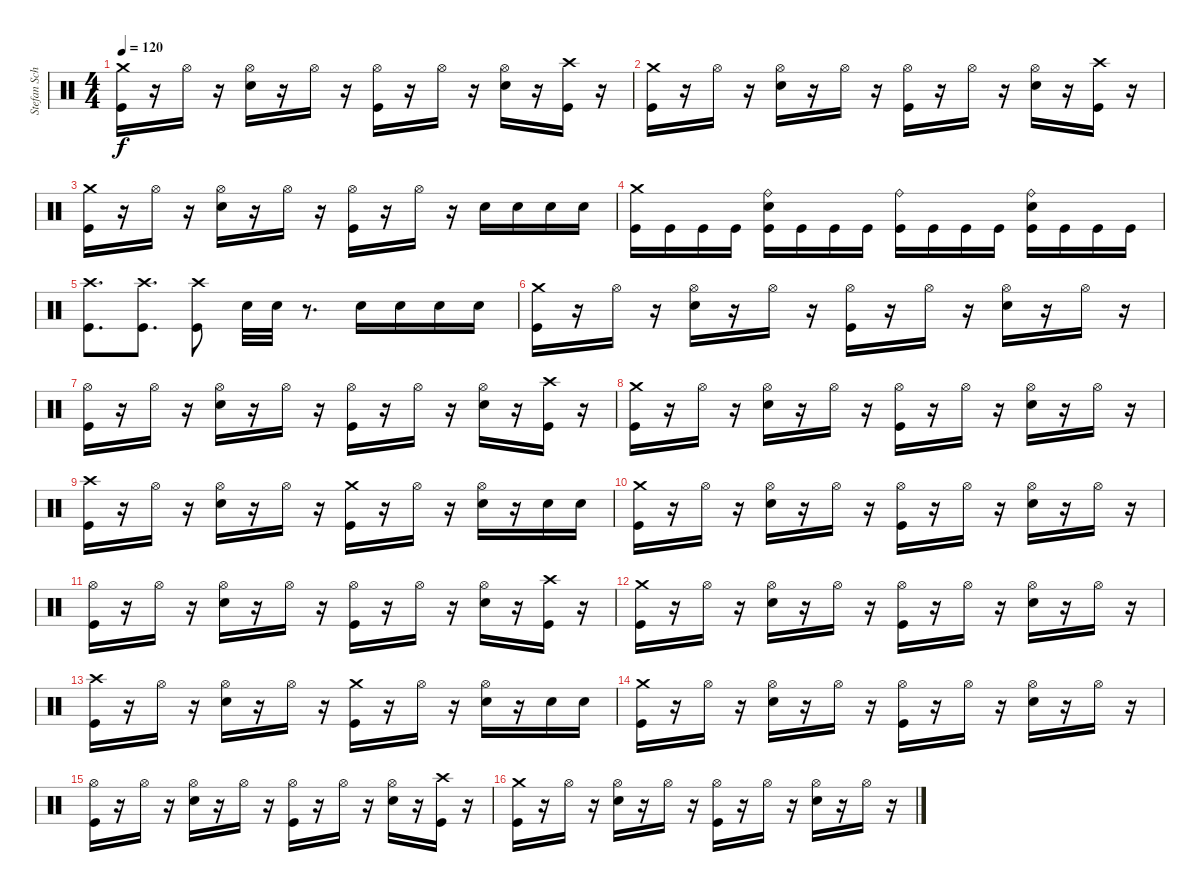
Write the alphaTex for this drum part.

\track ("Stefan Schwarzmann" "Stefan Sch") {instrument percussion}
\staff {score}
\articulation defaults
\ts (4 4)
\tempo 120
\clef neutral
\ks c
("Kick (hit)" "Crash medium (hit)").16{dy f} r.16 "Hi-Hat (open)".16 r.16 ("Snare (hit) 2" "Hi-Hat (open)").16 r.16 "Hi-Hat (open)".16 r.16 ("Kick (hit)" "Hi-Hat (open)").16 r.16 "Hi-Hat (open)".16 r.16 ("Snare (hit) 2" "Hi-Hat (open)").16 r.16 ("Crash high (hit)" "Kick (hit)").16 r.16 |
("Kick (hit)" "Crash medium (hit)").16 r.16 "Hi-Hat (open)".16 r.16 ("Snare (hit) 2" "Hi-Hat (open)").16 r.16 "Hi-Hat (open)".16 r.16 ("Kick (hit)" "Hi-Hat (open)").16 r.16 "Hi-Hat (open)".16 r.16 ("Snare (hit) 2" "Hi-Hat (open)").16 r.16 ("Crash high (hit)" "Kick (hit)").16 r.16 |
("Kick (hit)" "Crash medium (hit)").16 r.16 "Hi-Hat (open)".16 r.16 ("Snare (hit) 2" "Hi-Hat (open)").16 r.16 "Hi-Hat (open)".16 r.16 ("Kick (hit)" "Hi-Hat (open)").16 r.16 "Hi-Hat (open)".16 r.16 "Snare (hit) 2".16 "Snare (hit) 2".16 "Snare (hit) 2".16 "Snare (hit) 2".16 |
("Kick (hit)" "Crash medium (hit)").16 "Kick (hit)".16 "Kick (hit)".16 "Kick (hit)".16 ("Snare (hit) 2" "Kick (hit)" "Ride (bell)").16 "Kick (hit)".16 "Kick (hit)".16 "Kick (hit)".16 ("Kick (hit)" "Ride (bell)").16 "Kick (hit)".16 "Kick (hit)".16 "Kick (hit)".16 ("Snare (hit) 2" "Kick (hit)" "Ride (bell)").16 "Kick (hit)".16 "Kick (hit)".16 "Kick (hit)".16 |
("Kick (hit)" "Crash high (hit)").8{d} ("Kick (hit)" "Crash high (hit)").8{d} ("Kick (hit)" "Crash high (hit)").8 "Snare (hit) 2".32 "Snare (hit) 2".32 r.8{d} "Snare (hit) 2".16 "Snare (hit) 2".16 "Snare (hit) 2".16 "Snare (hit) 2".16 |
("Kick (hit)" "Crash medium (hit)").16 r.16 "Hi-Hat (open)".16 r.16 ("Snare (hit) 2" "Hi-Hat (open)").16 r.16 "Hi-Hat (open)".16 r.16 ("Kick (hit)" "Hi-Hat (open)").16 r.16 "Hi-Hat (open)".16 r.16 ("Snare (hit) 2" "Hi-Hat (open)").16 r.16 "Hi-Hat (open)".16 r.16 |
("Kick (hit)" "Hi-Hat (open)").16 r.16 "Hi-Hat (open)".16 r.16 ("Snare (hit) 2" "Hi-Hat (open)").16 r.16 "Hi-Hat (open)".16 r.16 ("Kick (hit)" "Hi-Hat (open)").16 r.16 "Hi-Hat (open)".16 r.16 ("Snare (hit) 2" "Hi-Hat (open)").16 r.16 ("Crash high (hit)" "Kick (hit)").16 r.16 |
("Kick (hit)" "Crash medium (hit)").16 r.16 "Hi-Hat (open)".16 r.16 ("Snare (hit) 2" "Hi-Hat (open)").16 r.16 "Hi-Hat (open)".16 r.16 ("Kick (hit)" "Hi-Hat (open)").16 r.16 "Hi-Hat (open)".16 r.16 ("Snare (hit) 2" "Hi-Hat (open)").16 r.16 "Hi-Hat (open)".16 r.16 |
("Kick (hit)" "Crash high (hit)").16 r.16 "Hi-Hat (open)".16 r.16 ("Snare (hit) 2" "Hi-Hat (open)").16 r.16 "Hi-Hat (open)".16 r.16 ("Kick (hit)" "Crash medium (hit)").16 r.16 "Hi-Hat (open)".16 r.16 ("Snare (hit) 2" "Hi-Hat (open)").16 r.16 "Snare (hit) 2".16 "Snare (hit) 2".16 |
("Kick (hit)" "Crash medium (hit)").16 r.16 "Hi-Hat (open)".16 r.16 ("Snare (hit) 2" "Hi-Hat (open)").16 r.16 "Hi-Hat (open)".16 r.16 ("Kick (hit)" "Hi-Hat (open)").16 r.16 "Hi-Hat (open)".16 r.16 ("Snare (hit) 2" "Hi-Hat (open)").16 r.16 "Hi-Hat (open)".16 r.16 |
("Kick (hit)" "Hi-Hat (open)").16 r.16 "Hi-Hat (open)".16 r.16 ("Snare (hit) 2" "Hi-Hat (open)").16 r.16 "Hi-Hat (open)".16 r.16 ("Kick (hit)" "Hi-Hat (open)").16 r.16 "Hi-Hat (open)".16 r.16 ("Snare (hit) 2" "Hi-Hat (open)").16 r.16 ("Crash high (hit)" "Kick (hit)").16 r.16 |
("Kick (hit)" "Crash medium (hit)").16 r.16 "Hi-Hat (open)".16 r.16 ("Snare (hit) 2" "Hi-Hat (open)").16 r.16 "Hi-Hat (open)".16 r.16 ("Kick (hit)" "Hi-Hat (open)").16 r.16 "Hi-Hat (open)".16 r.16 ("Snare (hit) 2" "Hi-Hat (open)").16 r.16 "Hi-Hat (open)".16 r.16 |
("Kick (hit)" "Crash high (hit)").16 r.16 "Hi-Hat (open)".16 r.16 ("Snare (hit) 2" "Hi-Hat (open)").16 r.16 "Hi-Hat (open)".16 r.16 ("Kick (hit)" "Crash medium (hit)").16 r.16 "Hi-Hat (open)".16 r.16 ("Snare (hit) 2" "Hi-Hat (open)").16 r.16 "Snare (hit) 2".16 "Snare (hit) 2".16 |
("Kick (hit)" "Crash medium (hit)").16 r.16 "Hi-Hat (open)".16 r.16 ("Snare (hit) 2" "Hi-Hat (open)").16 r.16 "Hi-Hat (open)".16 r.16 ("Kick (hit)" "Hi-Hat (open)").16 r.16 "Hi-Hat (open)".16 r.16 ("Snare (hit) 2" "Hi-Hat (open)").16 r.16 "Hi-Hat (open)".16 r.16 |
("Kick (hit)" "Hi-Hat (open)").16 r.16 "Hi-Hat (open)".16 r.16 ("Snare (hit) 2" "Hi-Hat (open)").16 r.16 "Hi-Hat (open)".16 r.16 ("Kick (hit)" "Hi-Hat (open)").16 r.16 "Hi-Hat (open)".16 r.16 ("Snare (hit) 2" "Hi-Hat (open)").16 r.16 ("Crash high (hit)" "Kick (hit)").16 r.16 |
("Kick (hit)" "Crash medium (hit)").16 r.16 "Hi-Hat (open)".16 r.16 ("Snare (hit) 2" "Hi-Hat (open)").16 r.16 "Hi-Hat (open)".16 r.16 ("Kick (hit)" "Hi-Hat (open)").16 r.16 "Hi-Hat (open)".16 r.16 ("Snare (hit) 2" "Hi-Hat (open)").16 r.16 "Hi-Hat (open)".16 r.16
